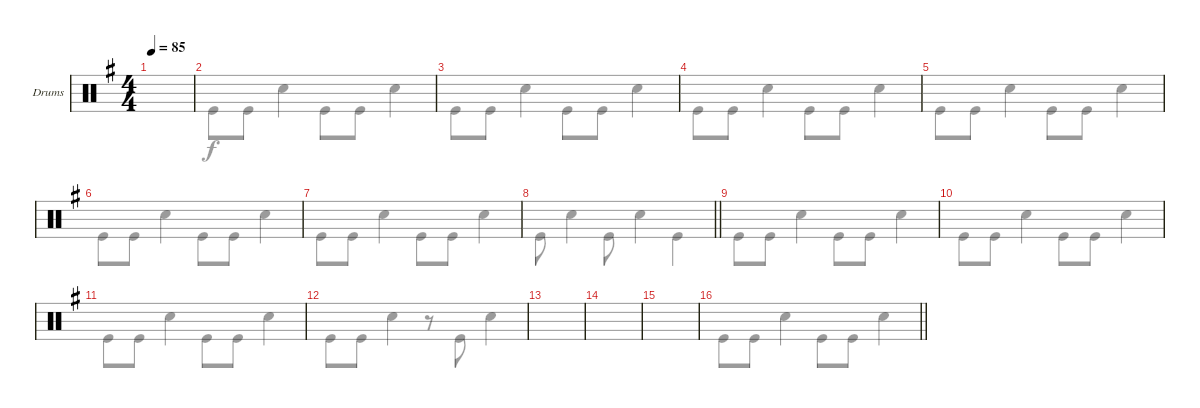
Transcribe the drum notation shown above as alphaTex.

\defaultSystemsLayout 4
\bracketExtendMode groupsimilarinstruments
\firstSystemTrackNameOrientation horizontal
\otherSystemsTrackNameOrientation horizontal
\track ("Drumkit" "Drums") {instrument percussion}
\staff {score}
\articulation defaults
\voice
\ts (4 4)
\scale
0.493617
\tempo 85
\accidentals auto
\clef neutral
\ottava regular
\simile none
\ks eminor
|
\scale
0.506663 |
\scale
0.476103 |
\scale
0.52448 |
\scale
0.510701 |
\scale
0.489506 |
\scale
0.500408 |
\scale
0.500252
\barLineRight lightlight
|
\scale
0.504286 |
\scale
0.495726 |
\scale
0.515714 |
\scale
0.48433 |
\scale
0.512857 |
\scale
0.487179 |
\scale
0.522857 |
\scale
0.477208
\barLineRight lightlight
\voice
\clef neutral
\ottava regular
\simile none
\ks eminor "Kick (hit)".8{dy f} "Kick (hit)".8 "Snare (hit) 2".4 "Kick (hit)".8 "Kick (hit)".8 "Snare (hit) 2".4
|
"Kick (hit)".8 "Kick (hit)".8 "Snare (hit) 2".4 "Kick (hit)".8 "Kick (hit)".8 "Snare (hit) 2".4 |
"Kick (hit)".8 "Kick (hit)".8 "Snare (hit) 2".4 "Kick (hit)".8 "Kick (hit)".8 "Snare (hit) 2".4 |
"Kick (hit)".8 "Kick (hit)".8 "Snare (hit) 2".4 "Kick (hit)".8 "Kick (hit)".8 "Snare (hit) 2".4 |
"Kick (hit)".8 "Kick (hit)".8 "Snare (hit) 2".4 "Kick (hit)".8 "Kick (hit)".8 "Snare (hit) 2".4 |
"Kick (hit)".8 "Kick (hit)".8 "Snare (hit) 2".4 "Kick (hit)".8 "Kick (hit)".8 "Snare (hit) 2".4 |
"Kick (hit)".8 "Kick (hit)".8 "Snare (hit) 2".4 "Kick (hit)".8 "Kick (hit)".8 "Snare (hit) 2".4 |
\barLineRight lightlight "Kick (hit)".8 "Snare (hit) 2".4 "Kick (hit)".8 "Snare (hit) 2".4 "Kick (hit)".4
|
"Kick (hit)".8 "Kick (hit)".8 "Snare (hit) 2".4 "Kick (hit)".8 "Kick (hit)".8 "Snare (hit) 2".4 |
"Kick (hit)".8 "Kick (hit)".8 "Snare (hit) 2".4 "Kick (hit)".8 "Kick (hit)".8 "Snare (hit) 2".4 |
"Kick (hit)".8 "Kick (hit)".8 "Snare (hit) 2".4 "Kick (hit)".8 "Kick (hit)".8 "Snare (hit) 2".4 |
"Kick (hit)".8 "Kick (hit)".8 "Snare (hit) 2".4 r.8 "Kick (hit)".8 "Snare (hit) 2".4 |
|
|
|
\barLineRight lightlight
